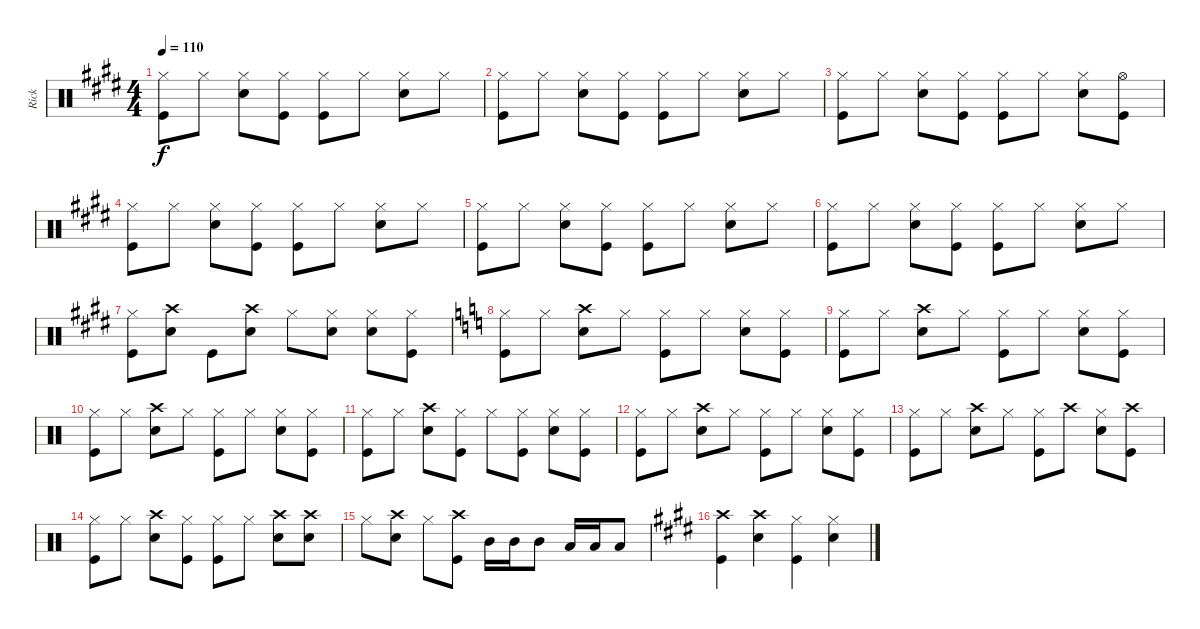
\track ("Rick" "Rick") {instrument percussion}
\staff {score}
\articulation defaults
\ts (4 4)
\tempo 110
\clef neutral
\ks c#minor
("Hi-Hat (closed)" "Kick (hit)").8{dy f} "Hi-Hat (closed)".8 ("Hi-Hat (closed)" "Snare (hit) 2").8 ("Hi-Hat (closed)" "Kick (hit)").8 ("Hi-Hat (closed)" "Kick (hit)").8 "Hi-Hat (closed)".8 ("Hi-Hat (closed)" "Snare (hit) 2").8 "Hi-Hat (closed)".8 |
("Hi-Hat (closed)" "Kick (hit)").8 "Hi-Hat (closed)".8 ("Hi-Hat (closed)" "Snare (hit) 2").8 ("Hi-Hat (closed)" "Kick (hit)").8 ("Hi-Hat (closed)" "Kick (hit)").8 "Hi-Hat (closed)".8 ("Hi-Hat (closed)" "Snare (hit) 2").8 "Hi-Hat (closed)".8 |
("Hi-Hat (closed)" "Kick (hit)").8 "Hi-Hat (closed)".8 ("Hi-Hat (closed)" "Snare (hit) 2").8 ("Hi-Hat (closed)" "Kick (hit)").8 ("Hi-Hat (closed)" "Kick (hit)").8 "Hi-Hat (closed)".8 ("Hi-Hat (closed)" "Snare (hit) 2").8 ("Hi-Hat (open)" "Kick (hit)").8 |
("Hi-Hat (closed)" "Kick (hit)").8 "Hi-Hat (closed)".8 ("Hi-Hat (closed)" "Snare (hit) 2").8 ("Hi-Hat (closed)" "Kick (hit)").8 ("Hi-Hat (closed)" "Kick (hit)").8 "Hi-Hat (closed)".8 ("Hi-Hat (closed)" "Snare (hit) 2").8 "Hi-Hat (closed)".8 |
("Hi-Hat (closed)" "Kick (hit)").8 "Hi-Hat (closed)".8 ("Hi-Hat (closed)" "Snare (hit) 2").8 ("Hi-Hat (closed)" "Kick (hit)").8 ("Hi-Hat (closed)" "Kick (hit)").8 "Hi-Hat (closed)".8 ("Hi-Hat (closed)" "Snare (hit) 2").8 "Hi-Hat (closed)".8 |
("Hi-Hat (closed)" "Kick (hit)").8 "Hi-Hat (closed)".8 ("Hi-Hat (closed)" "Snare (hit) 2").8 ("Hi-Hat (closed)" "Kick (hit)").8 ("Hi-Hat (closed)" "Kick (hit)").8 "Hi-Hat (closed)".8 ("Hi-Hat (closed)" "Snare (hit) 2").8 "Hi-Hat (closed)".8 |
("Hi-Hat (closed)" "Kick (hit)").8 ("Crash high (hit)" "Snare (hit) 2").8 "Kick (hit)".8 ("Crash high (hit)" "Snare (hit) 2").8 "Hi-Hat (closed)".8 ("Hi-Hat (closed)" "Snare (hit) 2").8 ("Hi-Hat (closed)" "Snare (hit) 2").8 ("Hi-Hat (closed)" "Kick (hit)").8 |
\ks c
("Hi-Hat (closed)" "Kick (hit)").8 "Hi-Hat (closed)".8 ("Crash high (hit)" "Snare (hit) 2").8 "Hi-Hat (closed)".8 ("Hi-Hat (closed)" "Kick (hit)").8 "Hi-Hat (closed)".8 ("Hi-Hat (closed)" "Snare (hit) 2").8 ("Hi-Hat (closed)" "Kick (hit)").8 |
("Hi-Hat (closed)" "Kick (hit)").8 "Hi-Hat (closed)".8 ("Crash high (hit)" "Snare (hit) 2").8 "Hi-Hat (closed)".8 ("Hi-Hat (closed)" "Kick (hit)").8 "Hi-Hat (closed)".8 ("Hi-Hat (closed)" "Snare (hit) 2").8 ("Hi-Hat (closed)" "Kick (hit)").8 |
("Hi-Hat (closed)" "Kick (hit)").8 "Hi-Hat (closed)".8 ("Crash high (hit)" "Snare (hit) 2").8 "Hi-Hat (closed)".8 ("Hi-Hat (closed)" "Kick (hit)").8 "Hi-Hat (closed)".8 ("Hi-Hat (closed)" "Snare (hit) 2").8 ("Hi-Hat (closed)" "Kick (hit)").8 |
("Hi-Hat (closed)" "Kick (hit)").8 "Hi-Hat (closed)".8 ("Crash high (hit)" "Snare (hit) 2").8 ("Hi-Hat (closed)" "Kick (hit)").8 "Hi-Hat (closed)".8 ("Hi-Hat (closed)" "Kick (hit)").8 ("Hi-Hat (closed)" "Snare (hit) 2").8 ("Hi-Hat (closed)" "Kick (hit)").8 |
("Hi-Hat (closed)" "Kick (hit)").8 "Hi-Hat (closed)".8 ("Crash high (hit)" "Snare (hit) 2").8 "Hi-Hat (closed)".8 ("Hi-Hat (closed)" "Kick (hit)").8 "Hi-Hat (closed)".8 ("Hi-Hat (closed)" "Snare (hit) 2").8 ("Hi-Hat (closed)" "Kick (hit)").8 |
("Hi-Hat (closed)" "Kick (hit)").8 "Hi-Hat (closed)".8 ("Crash high (hit)" "Snare (hit) 2").8 "Hi-Hat (closed)".8 ("Hi-Hat (closed)" "Kick (hit)").8 "Crash high (hit)".8 ("Hi-Hat (closed)" "Snare (hit) 2").8 ("Crash high (hit)" "Kick (hit)").8 |
("Hi-Hat (closed)" "Kick (hit)").8 "Hi-Hat (closed)".8 ("Crash high (hit)" "Snare (hit) 2").8 ("Hi-Hat (closed)" "Kick (hit)").8 ("Hi-Hat (closed)" "Kick (hit)").8 "Hi-Hat (closed)".8 ("Crash high (hit)" "Snare (hit) 2").8 ("Crash high (hit)" "Snare (hit) 2").8 |
"Hi-Hat (closed)".8 ("Crash high (hit)" "Snare (hit) 2").8 "Hi-Hat (closed)".8 ("Crash high (hit)" "Kick (hit)").8 "Mid Tom (hit)".16 "Mid Tom (hit)".16 "Mid Tom (hit)".8 "Low Tom (hit)".16 "Low Tom (hit)".16 "Low Tom (hit)".8 |
\ks e
("Crash high (hit)" "Kick (hit)").4 ("Crash high (hit)" "Snare (hit) 2").4 ("Hi-Hat (closed)" "Kick (hit)").4 ("Hi-Hat (closed)" "Snare (hit) 2").4
